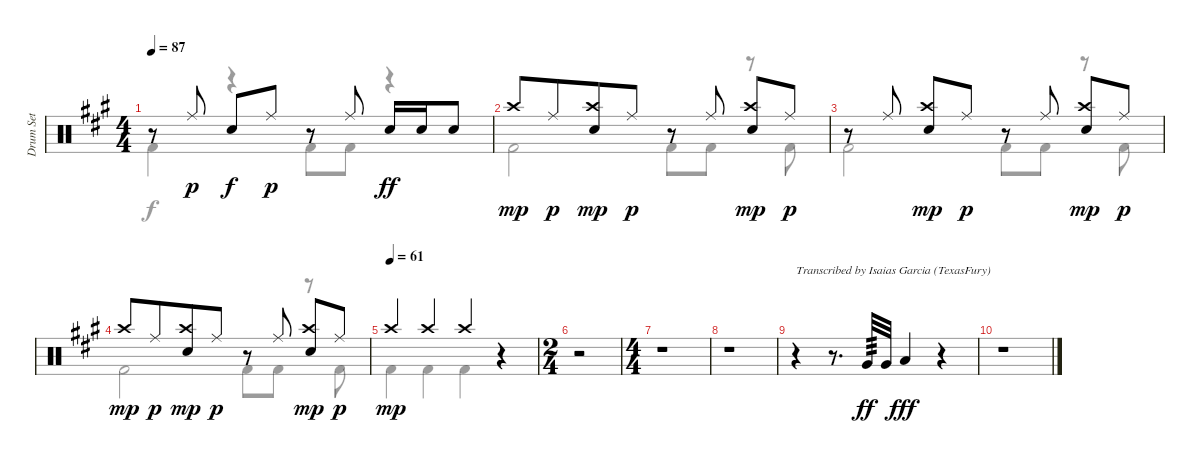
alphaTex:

\track ("Drum Set" "Drum Set") {instrument percussion}
\staff {score}
\articulation defaults
\voice
\ts (4 4)
\tempo 87
\clef neutral
\ks f#minor
r.8{dy p} "Ride (middle)".8 "Electric Snare (hit)".8{dy f} "Ride (middle)".8{dy p} r.8 "Ride (middle)".8 "Electric Snare (hit)".16{dy ff} "Electric Snare (hit)".16 "Electric Snare (hit)".8 |
"Crash high (hit)".8{dy mp} "Ride (middle)".8{dy p beam merge} ("Electric Snare (hit)" "Crash high (hit)").8{dy mp} "Ride (middle)".8{dy p} r.8 "Ride (middle)".8 ("Electric Snare (hit)" "Crash high (hit)").8{dy mp} "Ride (middle)".8{dy p} |
r.8 "Ride (middle)".8 ("Electric Snare (hit)" "Crash high (hit)").8{dy mp} "Ride (middle)".8{dy p} r.8 "Ride (middle)".8 ("Electric Snare (hit)" "Crash high (hit)").8{dy mp} "Ride (middle)".8{dy p} |
"Crash high (hit)".8{dy mp} "Ride (middle)".8{dy p beam merge} ("Electric Snare (hit)" "Crash high (hit)").8{dy mp} "Ride (middle)".8{dy p} r.8 "Ride (middle)".8 ("Electric Snare (hit)" "Crash high (hit)").8{dy mp} "Ride (middle)".8{dy p} |
\tempo (61)
"Crash high (hit)".4{dy mp} "Crash high (hit)".4 "Crash high (hit)".4 r.4 |
\ts (2 4)
r.2 |
\ts (4 4)
r.1 |
r.1 |
r.4{txt "Transcribed by Isaias Garcia (TexasFury)"} r.8{d} "Very Low Tom (hit)".32{tp 3 dy ff} "Very Low Tom (hit)".32 "Low Floor Tom (hit)".4{dy fff volume 0} r.4 |
r.1
\voice
\clef neutral
\ottava regular
\simile none
\ks f#minor "Kick (hit) 2".4{dy f}
r.4 "Kick (hit) 2".8 "Kick (hit) 2".8 r.4 |
"Kick (hit) 2".2 "Kick (hit) 2".8 "Kick (hit) 2".8 r.8 "Kick (hit) 2".8 |
"Kick (hit) 2".2 "Kick (hit) 2".8 "Kick (hit) 2".8 r.8 "Kick (hit) 2".8 |
"Kick (hit) 2".2 "Kick (hit) 2".8 "Kick (hit) 2".8 r.8 "Kick (hit) 2".8 |
"Kick (hit) 2".4 "Kick (hit) 2".4 "Kick (hit) 2".4 r.4 |
|
|
|
|
